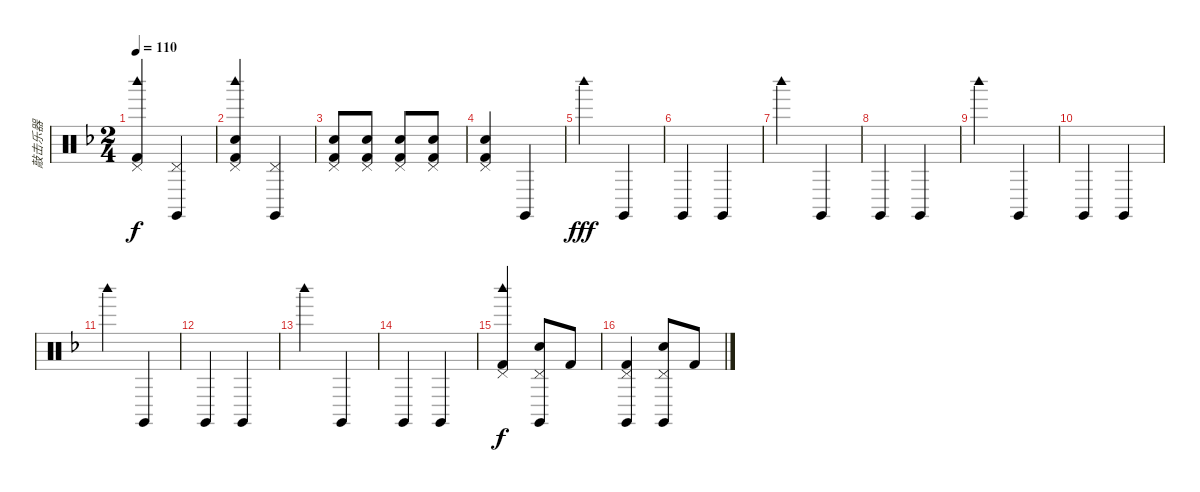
\track ("敲击乐器" "敲击乐器") {instrument percussion}
\staff {score}
\articulation defaults
\ts (2 4)
\tempo 110
\clef neutral
\ks dminor
("Pedal Hi-Hat (hit)" "Woodblock high (hit)" "Kick (hit) 2").4{dy f} ("Pedal Hi-Hat (hit)" "Claves (hit)").4 |
("Pedal Hi-Hat (hit)" "Woodblock high (hit)" "Hand Clap (hit)" "Kick (hit) 2").4 ("Pedal Hi-Hat (hit)" "Claves (hit)").4 |
("Pedal Hi-Hat (hit)" "Electric Snare (hit)" "Kick (hit) 2").8 ("Pedal Hi-Hat (hit)" "Electric Snare (hit)" "Kick (hit) 2").8 ("Pedal Hi-Hat (hit)" "Electric Snare (hit)" "Kick (hit) 2").8 ("Pedal Hi-Hat (hit)" "Electric Snare (hit)" "Kick (hit) 2").8 |
("Pedal Hi-Hat (hit)" "Electric Snare (hit)" "Kick (hit) 2").4 "Claves (hit)".4 |
"Woodblock high (hit)".4{dy fff} "Claves (hit)".4 |
"Claves (hit)".4 "Claves (hit)".4 |
"Woodblock high (hit)".4 "Claves (hit)".4 |
"Claves (hit)".4 "Claves (hit)".4 |
"Woodblock high (hit)".4 "Claves (hit)".4 |
"Claves (hit)".4 "Claves (hit)".4 |
"Woodblock high (hit)".4 "Claves (hit)".4 |
"Claves (hit)".4 "Claves (hit)".4 |
"Woodblock high (hit)".4 "Claves (hit)".4 |
"Claves (hit)".4 "Claves (hit)".4 |
("Pedal Hi-Hat (hit)" "Woodblock high (hit)" "Kick (hit) 2").4{dy f} ("Pedal Hi-Hat (hit)" "Claves (hit)" "Electric Snare (hit)").8 "Kick (hit) 2".8 |
("Pedal Hi-Hat (hit)" "Claves (hit)" "Kick (hit) 2").4 ("Pedal Hi-Hat (hit)" "Claves (hit)" "Electric Snare (hit)").8 "Kick (hit) 2".8
